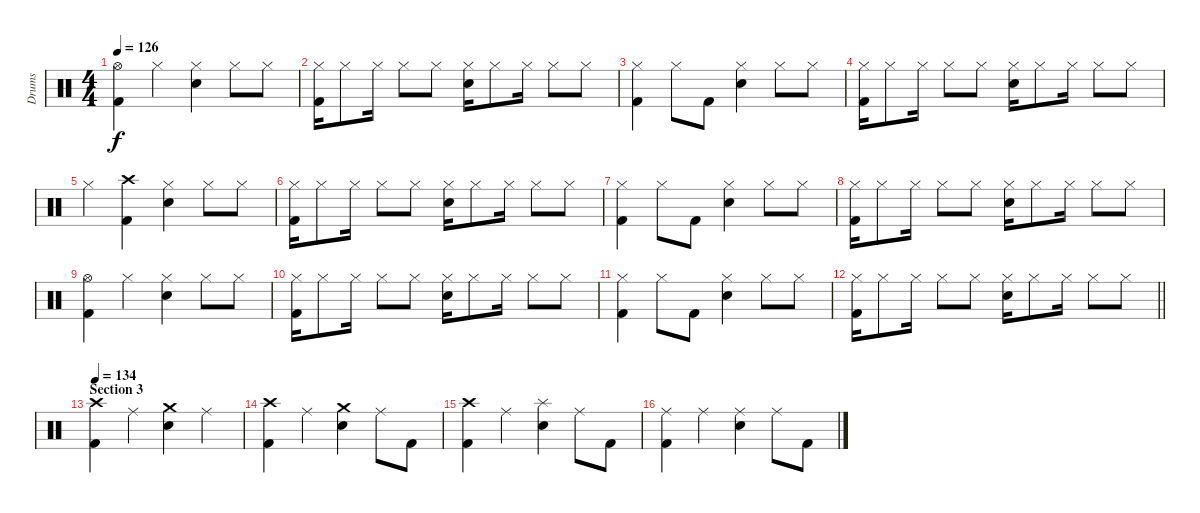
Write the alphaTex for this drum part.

\track ("Drums" "Drums") {instrument percussion}
\staff {score}
\articulation defaults
\ts (4 4)
\tempo 126
\clef neutral
\ks c
("Hi-Hat (open)" "Kick (hit) 2").4{dy f} "Hi-Hat (closed)".4 ("Hi-Hat (closed)" "Electric Snare (hit)").4 "Hi-Hat (closed)".8 "Hi-Hat (closed)".8 |
("Hi-Hat (closed)" "Kick (hit) 2").16 "Hi-Hat (closed)".8 "Hi-Hat (closed)".16 "Hi-Hat (closed)".8 "Hi-Hat (closed)".8 ("Hi-Hat (closed)" "Electric Snare (hit)").16 "Hi-Hat (closed)".8 "Hi-Hat (closed)".16 "Hi-Hat (closed)".8 "Hi-Hat (closed)".8 |
("Hi-Hat (closed)" "Kick (hit) 2").4 "Hi-Hat (closed)".8 "Kick (hit) 2".8 ("Hi-Hat (closed)" "Electric Snare (hit)").4 "Hi-Hat (closed)".8 "Hi-Hat (closed)".8 |
("Hi-Hat (closed)" "Kick (hit) 2").16 "Hi-Hat (closed)".8 "Hi-Hat (closed)".16 "Hi-Hat (closed)".8 "Hi-Hat (closed)".8 ("Hi-Hat (closed)" "Electric Snare (hit)").16 "Hi-Hat (closed)".8 "Hi-Hat (closed)".16 "Hi-Hat (closed)".8 "Hi-Hat (closed)".8 |
"Hi-Hat (closed)".4 ("Crash high (hit)" "Kick (hit) 2").4 ("Hi-Hat (closed)" "Electric Snare (hit)").4 "Hi-Hat (closed)".8 "Hi-Hat (closed)".8 |
("Hi-Hat (closed)" "Kick (hit) 2").16 "Hi-Hat (closed)".8 "Hi-Hat (closed)".16 "Hi-Hat (closed)".8 "Hi-Hat (closed)".8 ("Hi-Hat (closed)" "Electric Snare (hit)").16 "Hi-Hat (closed)".8 "Hi-Hat (closed)".16 "Hi-Hat (closed)".8 "Hi-Hat (closed)".8 |
("Hi-Hat (closed)" "Kick (hit) 2").4 "Hi-Hat (closed)".8 "Kick (hit) 2".8 ("Hi-Hat (closed)" "Electric Snare (hit)").4 "Hi-Hat (closed)".8 "Hi-Hat (closed)".8 |
("Hi-Hat (closed)" "Kick (hit) 2").16 "Hi-Hat (closed)".8 "Hi-Hat (closed)".16 "Hi-Hat (closed)".8 "Hi-Hat (closed)".8 ("Hi-Hat (closed)" "Electric Snare (hit)").16 "Hi-Hat (closed)".8 "Hi-Hat (closed)".16 "Hi-Hat (closed)".8 "Hi-Hat (closed)".8 |
("Hi-Hat (open)" "Kick (hit) 2").4 "Hi-Hat (closed)".4 ("Hi-Hat (closed)" "Electric Snare (hit)").4 "Hi-Hat (closed)".8 "Hi-Hat (closed)".8 |
("Hi-Hat (closed)" "Kick (hit) 2").16 "Hi-Hat (closed)".8 "Hi-Hat (closed)".16 "Hi-Hat (closed)".8 "Hi-Hat (closed)".8 ("Hi-Hat (closed)" "Electric Snare (hit)").16 "Hi-Hat (closed)".8 "Hi-Hat (closed)".16 "Hi-Hat (closed)".8 "Hi-Hat (closed)".8 |
("Hi-Hat (closed)" "Kick (hit) 2").4 "Hi-Hat (closed)".8 "Kick (hit) 2".8 ("Hi-Hat (closed)" "Electric Snare (hit)").4 "Hi-Hat (closed)".8 "Hi-Hat (closed)".8 |
\barLineRight lightlight
("Hi-Hat (closed)" "Kick (hit) 2").16 "Hi-Hat (closed)".8 "Hi-Hat (closed)".16 "Hi-Hat (closed)".8 "Hi-Hat (closed)".8 ("Hi-Hat (closed)" "Electric Snare (hit)").16 "Hi-Hat (closed)".8 "Hi-Hat (closed)".16 "Hi-Hat (closed)".8 "Hi-Hat (closed)".8 |
\section ("" "Section 3")
\tempo 134
("Crash high (hit)" "Kick (hit) 2").4 "Ride (middle)".4 ("Crash medium (hit)" "Electric Snare (hit)").4 "Ride (middle)".4 |
("Crash high (hit)" "Kick (hit) 2").4 "Ride (middle)".4 ("Crash medium (hit)" "Electric Snare (hit)").4 "Ride (middle)".8 "Kick (hit) 2".8 |
("Crash high (hit)" "Kick (hit) 2").4 "Ride (middle)".4 ("Splash (hit)" "Electric Snare (hit)").4 "Ride (middle)".8 "Kick (hit) 2".8 |
("Ride (middle)" "Kick (hit) 2").4 "Ride (middle)".4 ("Ride (middle)" "Electric Snare (hit)").4 "Ride (middle)".8 "Kick (hit) 2".8
